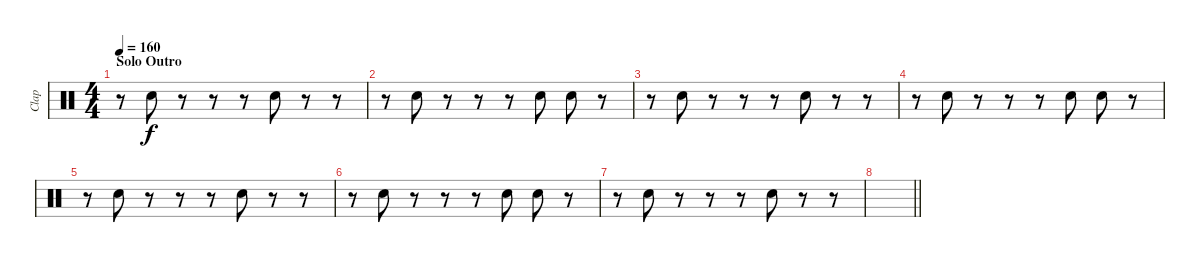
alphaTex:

\track ("Clap" "Clap") {instrument percussion}
\staff {score}
\articulation defaults
\ts (4 4)
\section ("" "Solo Outro")
\tempo 160
\clef neutral
\ks c
r.8{dy f} "Hand Clap (hit)".8 r.8 r.8 r.8 "Hand Clap (hit)".8 r.8 r.8 |
r.8 "Hand Clap (hit)".8 r.8 r.8 r.8 "Hand Clap (hit)".8 "Hand Clap (hit)".8 r.8 |
r.8 "Hand Clap (hit)".8 r.8 r.8 r.8 "Hand Clap (hit)".8 r.8 r.8 |
r.8 "Hand Clap (hit)".8 r.8 r.8 r.8 "Hand Clap (hit)".8 "Hand Clap (hit)".8 r.8 |
r.8 "Hand Clap (hit)".8 r.8 r.8 r.8 "Hand Clap (hit)".8 r.8 r.8 |
r.8 "Hand Clap (hit)".8 r.8 r.8 r.8 "Hand Clap (hit)".8 "Hand Clap (hit)".8 r.8 |
r.8 "Hand Clap (hit)".8 r.8 r.8 r.8 "Hand Clap (hit)".8 r.8 r.8 |
\barLineRight lightlight
